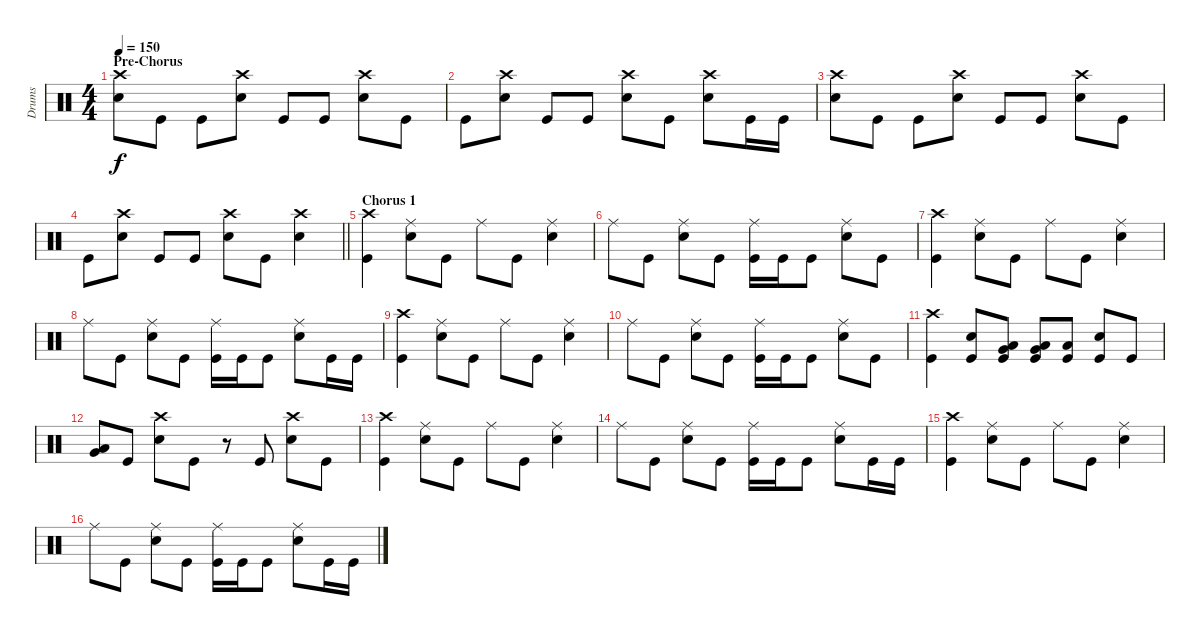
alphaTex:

\track ("Drums" "Drums") {instrument percussion}
\staff {score}
\articulation defaults
\ts (4 4)
\section ("" "Pre-Chorus")
\tempo 150
\clef neutral
\ks c
("Crash high (hit)" "Snare (hit) 2").8{dy f} "Kick (hit)".8 "Kick (hit)".8 ("Snare (hit) 2" "Crash high (hit)").8 "Kick (hit)".8 "Kick (hit)".8 ("Crash high (hit)" "Snare (hit) 2").8 "Kick (hit)".8 |
"Kick (hit)".8 ("Snare (hit) 2" "Crash high (hit)").8 "Kick (hit)".8 "Kick (hit)".8 ("Crash high (hit)" "Snare (hit) 2").8 "Kick (hit)".8 ("Snare (hit) 2" "Crash high (hit)").8 "Kick (hit)".16 "Kick (hit)".16 |
("Crash high (hit)" "Snare (hit) 2").8 "Kick (hit)".8 "Kick (hit)".8 ("Snare (hit) 2" "Crash high (hit)").8 "Kick (hit)".8 "Kick (hit)".8 ("Crash high (hit)" "Snare (hit) 2").8 "Kick (hit)".8 |
\barLineRight lightlight "Kick (hit)".8
("Snare (hit) 2" "Crash high (hit)").8 "Kick (hit)".8 "Kick (hit)".8 ("Crash high (hit)" "Snare (hit) 2").8 "Kick (hit)".8 ("Snare (hit) 2" "Crash high (hit)").4 |
\section ("" "Chorus 1")
("Crash high (hit)" "Kick (hit)").4 ("Snare (hit) 2" "Ride (middle)").8 "Kick (hit)".8 "Ride (middle)".8 "Kick (hit)".8 ("Snare (hit) 2" "Ride (middle)").4 |
"Ride (middle)".8 "Kick (hit)".8 ("Snare (hit) 2" "Ride (middle)").8 "Kick (hit)".8 ("Ride (middle)" "Kick (hit)").16 "Kick (hit)".16 "Kick (hit)".8 ("Ride (middle)" "Snare (hit) 2").8 "Kick (hit)".8 |
("Crash high (hit)" "Kick (hit)").4 ("Snare (hit) 2" "Ride (middle)").8 "Kick (hit)".8 "Ride (middle)".8 "Kick (hit)".8 ("Snare (hit) 2" "Ride (middle)").4 |
"Ride (middle)".8 "Kick (hit)".8 ("Snare (hit) 2" "Ride (middle)").8 "Kick (hit)".8 ("Ride (middle)" "Kick (hit)").16 "Kick (hit)".16 "Kick (hit)".8 ("Ride (middle)" "Snare (hit) 2").8 "Kick (hit)".16 "Kick (hit)".16 |
("Crash high (hit)" "Kick (hit)").4 ("Snare (hit) 2" "Ride (middle)").8 "Kick (hit)".8 "Ride (middle)".8 "Kick (hit)".8 ("Snare (hit) 2" "Ride (middle)").4 |
"Ride (middle)".8 "Kick (hit)".8 ("Snare (hit) 2" "Ride (middle)").8 "Kick (hit)".8 ("Ride (middle)" "Kick (hit)").16 "Kick (hit)".16 "Kick (hit)".8 ("Ride (middle)" "Snare (hit) 2").8 "Kick (hit)".8 |
("Crash high (hit)" "Kick (hit)").4 ("Snare (hit) 2" "Kick (hit)").8 ("Very Low Tom (hit)" "Low Tom (hit)" "Kick (hit)").8 ("Low Floor Tom (hit)" "Very Low Tom (hit)" "Kick (hit)").8 ("Low Floor Tom (hit)" "Kick (hit)").8 ("Snare (hit) 2" "Kick (hit)").8 "Kick (hit)".8 |
("Low Tom (hit)" "Very Low Tom (hit)").8 "Kick (hit)".8 ("Snare (hit) 2" "Crash high (hit)").8 "Kick (hit)".8 r.8 "Kick (hit)".8 ("Snare (hit) 2" "Crash high (hit)").8 "Kick (hit)".8 |
("Crash high (hit)" "Kick (hit)").4 ("Snare (hit) 2" "Ride (middle)").8 "Kick (hit)".8 "Ride (middle)".8 "Kick (hit)".8 ("Snare (hit) 2" "Ride (middle)").4 |
"Ride (middle)".8 "Kick (hit)".8 ("Snare (hit) 2" "Ride (middle)").8 "Kick (hit)".8 ("Ride (middle)" "Kick (hit)").16 "Kick (hit)".16 "Kick (hit)".8 ("Ride (middle)" "Snare (hit) 2").8 "Kick (hit)".16 "Kick (hit)".16 |
("Crash high (hit)" "Kick (hit)").4 ("Snare (hit) 2" "Ride (middle)").8 "Kick (hit)".8 "Ride (middle)".8 "Kick (hit)".8 ("Snare (hit) 2" "Ride (middle)").4 |
"Ride (middle)".8 "Kick (hit)".8 ("Snare (hit) 2" "Ride (middle)").8 "Kick (hit)".8 ("Ride (middle)" "Kick (hit)").16 "Kick (hit)".16 "Kick (hit)".8 ("Ride (middle)" "Snare (hit) 2").8 "Kick (hit)".16 "Kick (hit)".16
